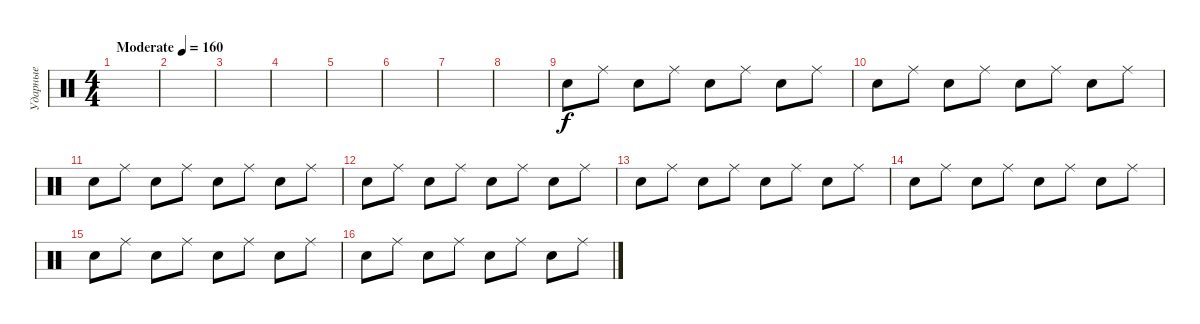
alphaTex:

\track ("Ударные" "Ударные") {instrument percussion}
\staff {score}
\articulation defaults
\ts (4 4)
\tempo (160 "Moderate")
\clef neutral
\ks c
|
|
|
|
|
|
|
|
"Snare (hit) 2".8 "Ride (middle)".8 "Snare (hit) 2".8 "Ride (middle)".8 "Snare (hit) 2".8 "Ride (middle)".8 "Snare (hit) 2".8 "Ride (middle)".8 |
"Snare (hit) 2".8 "Ride (middle)".8 "Snare (hit) 2".8 "Ride (middle)".8 "Snare (hit) 2".8 "Ride (middle)".8 "Snare (hit) 2".8 "Ride (middle)".8 |
"Snare (hit) 2".8 "Ride (middle)".8 "Snare (hit) 2".8 "Ride (middle)".8 "Snare (hit) 2".8 "Ride (middle)".8 "Snare (hit) 2".8 "Ride (middle)".8 |
"Snare (hit) 2".8 "Ride (middle)".8 "Snare (hit) 2".8 "Ride (middle)".8 "Snare (hit) 2".8 "Ride (middle)".8 "Snare (hit) 2".8 "Ride (middle)".8 |
"Snare (hit) 2".8 "Ride (middle)".8 "Snare (hit) 2".8 "Ride (middle)".8 "Snare (hit) 2".8 "Ride (middle)".8 "Snare (hit) 2".8 "Ride (middle)".8 |
"Snare (hit) 2".8 "Ride (middle)".8 "Snare (hit) 2".8 "Ride (middle)".8 "Snare (hit) 2".8 "Ride (middle)".8 "Snare (hit) 2".8 "Ride (middle)".8 |
"Snare (hit) 2".8 "Ride (middle)".8 "Snare (hit) 2".8 "Ride (middle)".8 "Snare (hit) 2".8 "Ride (middle)".8 "Snare (hit) 2".8 "Ride (middle)".8 |
"Snare (hit) 2".8 "Ride (middle)".8 "Snare (hit) 2".8 "Ride (middle)".8 "Snare (hit) 2".8 "Ride (middle)".8 "Snare (hit) 2".8 "Ride (middle)".8
